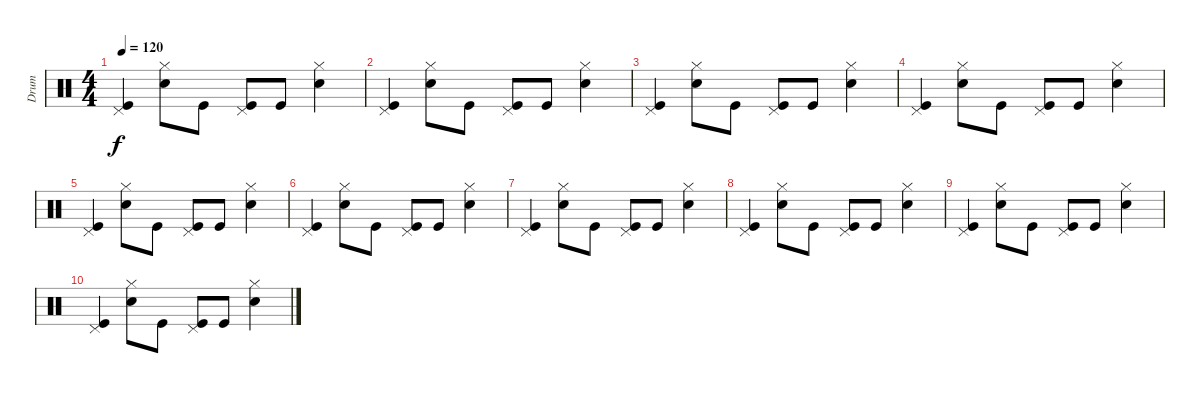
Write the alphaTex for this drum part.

\track ("Drum" "Drum") {instrument percussion}
\staff {score}
\articulation defaults
\ts (4 4)
\tempo 120
\clef neutral
\ks c
("Pedal Hi-Hat (hit)" "Kick (hit)").4{dy f} ("Hi-Hat (closed)" "Snare (hit) 2").8 "Kick (hit)".8 ("Pedal Hi-Hat (hit)" "Kick (hit)").8 "Kick (hit)".8 ("Hi-Hat (closed)" "Snare (hit) 2").4 |
("Pedal Hi-Hat (hit)" "Kick (hit)").4 ("Hi-Hat (closed)" "Snare (hit) 2").8 "Kick (hit)".8 ("Pedal Hi-Hat (hit)" "Kick (hit)").8 "Kick (hit)".8 ("Hi-Hat (closed)" "Snare (hit) 2").4 |
("Pedal Hi-Hat (hit)" "Kick (hit)").4 ("Hi-Hat (closed)" "Snare (hit) 2").8 "Kick (hit)".8 ("Pedal Hi-Hat (hit)" "Kick (hit)").8 "Kick (hit)".8 ("Hi-Hat (closed)" "Snare (hit) 2").4 |
("Pedal Hi-Hat (hit)" "Kick (hit)").4 ("Hi-Hat (closed)" "Snare (hit) 2").8 "Kick (hit)".8 ("Pedal Hi-Hat (hit)" "Kick (hit)").8 "Kick (hit)".8 ("Hi-Hat (closed)" "Snare (hit) 2").4 |
("Pedal Hi-Hat (hit)" "Kick (hit)").4 ("Hi-Hat (closed)" "Snare (hit) 2").8 "Kick (hit)".8 ("Pedal Hi-Hat (hit)" "Kick (hit)").8 "Kick (hit)".8 ("Hi-Hat (closed)" "Snare (hit) 2").4 |
("Pedal Hi-Hat (hit)" "Kick (hit)").4 ("Hi-Hat (closed)" "Snare (hit) 2").8 "Kick (hit)".8 ("Pedal Hi-Hat (hit)" "Kick (hit)").8 "Kick (hit)".8 ("Hi-Hat (closed)" "Snare (hit) 2").4 |
("Pedal Hi-Hat (hit)" "Kick (hit)").4 ("Hi-Hat (closed)" "Snare (hit) 2").8 "Kick (hit)".8 ("Pedal Hi-Hat (hit)" "Kick (hit)").8 "Kick (hit)".8 ("Hi-Hat (closed)" "Snare (hit) 2").4 |
("Pedal Hi-Hat (hit)" "Kick (hit)").4 ("Hi-Hat (closed)" "Snare (hit) 2").8 "Kick (hit)".8 ("Pedal Hi-Hat (hit)" "Kick (hit)").8 "Kick (hit)".8 ("Hi-Hat (closed)" "Snare (hit) 2").4 |
("Pedal Hi-Hat (hit)" "Kick (hit)").4 ("Hi-Hat (closed)" "Snare (hit) 2").8 "Kick (hit)".8 ("Pedal Hi-Hat (hit)" "Kick (hit)").8 "Kick (hit)".8 ("Hi-Hat (closed)" "Snare (hit) 2").4 |
("Pedal Hi-Hat (hit)" "Kick (hit)").4 ("Hi-Hat (closed)" "Snare (hit) 2").8 "Kick (hit)".8 ("Pedal Hi-Hat (hit)" "Kick (hit)").8 "Kick (hit)".8 ("Hi-Hat (closed)" "Snare (hit) 2").4
